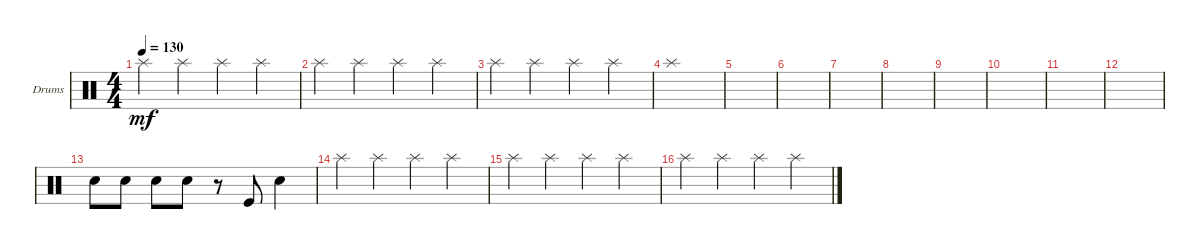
\defaultSystemsLayout 4
\bracketExtendMode groupsimilarinstruments
\firstSystemTrackNameOrientation horizontal
\otherSystemsTrackNameOrientation horizontal
\track ("Drumkit" "Drums") {instrument percussion}
\staff {score}
\articulation defaults
\ts (4 4)
\tempo 130
\clef neutral
\scale
0.333333
\ks c "Splash (hit)".4{dy mf} "Splash (hit)".4 "Splash (hit)".4 "Splash (hit)".4
|
\scale
0.333333 "Splash (hit)".4 "Splash (hit)".4 "Splash (hit)".4 "Splash (hit)".4 |
\scale
0.333333 "Splash (hit)".4 "Splash (hit)".4 "Splash (hit)".4 "Splash (hit)".4 |
\scale
0.333333 "Splash (hit)".1 |
\scale
0.333333 |
\scale
0.333333 |
\scale
0.333333 |
\scale
0.333333 |
\scale
0.333333 |
\scale
0.333333 |
\scale
0.333333 |
\scale
0.333333 |
\scale
0.333333 "Snare (hit) 2".8 "Snare (hit) 2".8 "Snare (hit) 2".8 "Snare (hit) 2".8 r.8 "Kick (hit)".8 "Snare (hit) 2".4 |
\scale
0.333333 "Splash (hit)".4 "Splash (hit)".4 "Splash (hit)".4 "Splash (hit)".4 |
\scale
0.333333 "Splash (hit)".4 "Splash (hit)".4 "Splash (hit)".4 "Splash (hit)".4 |
\scale
0.333333 "Splash (hit)".4 "Splash (hit)".4 "Splash (hit)".4 "Splash (hit)".4
